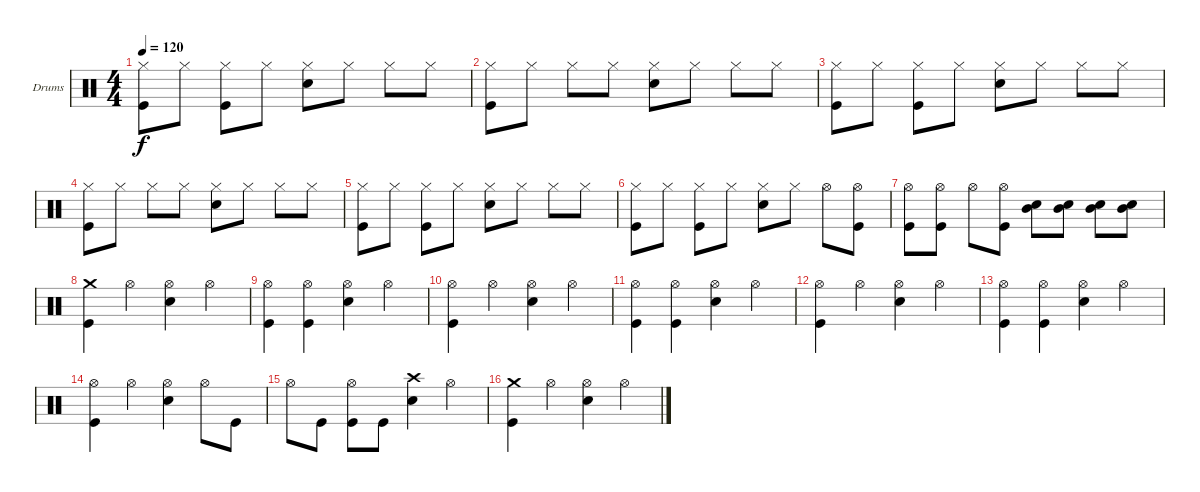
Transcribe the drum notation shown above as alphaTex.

\bracketExtendMode groupsimilarinstruments
\firstSystemTrackNameOrientation horizontal
\otherSystemsTrackNameOrientation horizontal
\track ("Drumkit (Christoph)" "Drums") {instrument percussion}
\staff {score}
\articulation defaults
\ts (4 4)
\tempo 120
\clef neutral
\ks c
("Hi-Hat (closed)" "Kick (hit)").8{dy f} "Hi-Hat (closed)".8 ("Hi-Hat (closed)" "Kick (hit)").8 "Hi-Hat (closed)".8 ("Hi-Hat (closed)" "Snare (hit) 2").8 "Hi-Hat (closed)".8 "Hi-Hat (closed)".8 "Hi-Hat (closed)".8 |
("Hi-Hat (closed)" "Kick (hit)").8 "Hi-Hat (closed)".8 "Hi-Hat (closed)".8 "Hi-Hat (closed)".8 ("Hi-Hat (closed)" "Snare (hit) 2").8 "Hi-Hat (closed)".8 "Hi-Hat (closed)".8 "Hi-Hat (closed)".8 |
("Hi-Hat (closed)" "Kick (hit)").8 "Hi-Hat (closed)".8 ("Hi-Hat (closed)" "Kick (hit)").8 "Hi-Hat (closed)".8 ("Hi-Hat (closed)" "Snare (hit) 2").8 "Hi-Hat (closed)".8 "Hi-Hat (closed)".8 "Hi-Hat (closed)".8 |
("Hi-Hat (closed)" "Kick (hit)").8 "Hi-Hat (closed)".8 "Hi-Hat (closed)".8 "Hi-Hat (closed)".8 ("Hi-Hat (closed)" "Snare (hit) 2").8 "Hi-Hat (closed)".8 "Hi-Hat (closed)".8 "Hi-Hat (closed)".8 |
("Hi-Hat (closed)" "Kick (hit)").8 "Hi-Hat (closed)".8 ("Hi-Hat (closed)" "Kick (hit)").8 "Hi-Hat (closed)".8 ("Hi-Hat (closed)" "Snare (hit) 2").8 "Hi-Hat (closed)".8 "Hi-Hat (closed)".8 "Hi-Hat (closed)".8 |
("Hi-Hat (closed)" "Kick (hit)").8 "Hi-Hat (closed)".8 ("Hi-Hat (closed)" "Kick (hit)").8 "Hi-Hat (closed)".8 ("Hi-Hat (closed)" "Snare (hit) 2").8 "Hi-Hat (closed)".8 "Hi-Hat (open)".8 ("Hi-Hat (open)" "Kick (hit)").8 |
("Hi-Hat (open)" "Kick (hit)").8 ("Hi-Hat (open)" "Kick (hit)").8 "Hi-Hat (open)".8 ("Hi-Hat (open)" "Kick (hit)").8 ("Mid Tom (hit)" "Snare (hit) 2").8 ("Mid Tom (hit)" "Snare (hit) 2").8 ("Mid Tom (hit)" "Snare (hit) 2").8 ("Mid Tom (hit)" "Snare (hit) 2").8 |
("Crash medium (hit)" "Kick (hit)").4 "Hi-Hat (open)".4 ("Hi-Hat (open)" "Snare (hit) 2").4 "Hi-Hat (open)".4 |
("Hi-Hat (open)" "Kick (hit)").4 ("Hi-Hat (open)" "Kick (hit)").4 ("Hi-Hat (open)" "Snare (hit) 2").4 "Hi-Hat (open)".4 |
("Hi-Hat (open)" "Kick (hit)").4 "Hi-Hat (open)".4 ("Hi-Hat (open)" "Snare (hit) 2").4 "Hi-Hat (open)".4 |
("Hi-Hat (open)" "Kick (hit)").4 ("Hi-Hat (open)" "Kick (hit)").4 ("Hi-Hat (open)" "Snare (hit) 2").4 "Hi-Hat (open)".4 |
("Hi-Hat (open)" "Kick (hit)").4 "Hi-Hat (open)".4 ("Hi-Hat (open)" "Snare (hit) 2").4 "Hi-Hat (open)".4 |
("Hi-Hat (open)" "Kick (hit)").4 ("Hi-Hat (open)" "Kick (hit)").4 ("Hi-Hat (open)" "Snare (hit) 2").4 "Hi-Hat (open)".4 |
("Hi-Hat (open)" "Kick (hit)").4 "Hi-Hat (open)".4 ("Hi-Hat (open)" "Snare (hit) 2").4 "Hi-Hat (open)".8 "Kick (hit)".8 |
"Hi-Hat (open)".8 "Kick (hit)".8 ("Hi-Hat (open)" "Kick (hit)").8 "Kick (hit)".8 ("Crash high (hit)" "Snare (hit) 2").4 "Hi-Hat (open)".4 |
("Crash medium (hit)" "Kick (hit)").4 "Hi-Hat (open)".4 ("Hi-Hat (open)" "Snare (hit) 2").4 "Hi-Hat (open)".4
